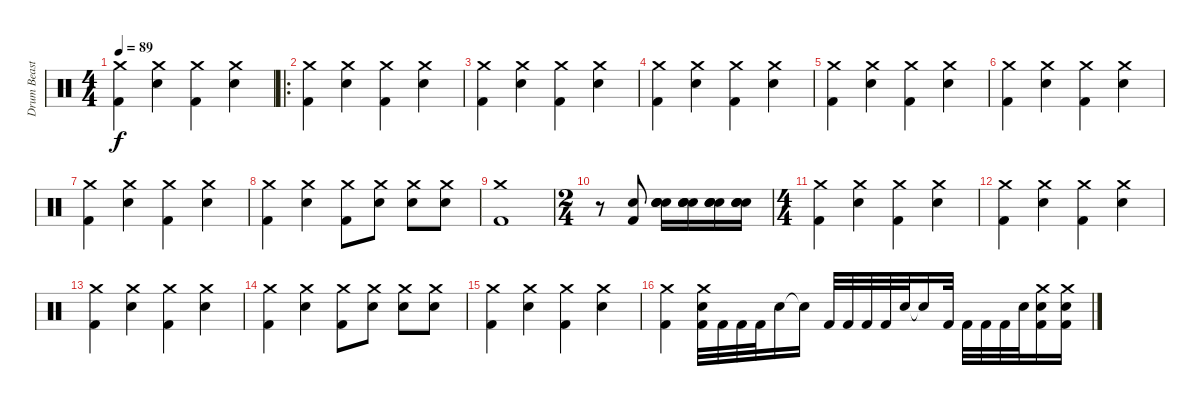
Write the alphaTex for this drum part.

\track ("Drum Beast Lars" "Drum Beast") {instrument percussion}
\staff {score}
\articulation defaults
\ts (4 4)
\tempo 89
\clef neutral
\ks c
("Crash medium (hit)" "Kick (hit) 2").4{dy f} ("Crash medium (hit)" "Electric Snare (hit)").4 ("Crash medium (hit)" "Kick (hit) 2").4 ("Crash medium (hit)" "Electric Snare (hit)").4 |
\ro
("Crash medium (hit)" "Kick (hit) 2").4 ("Crash medium (hit)" "Electric Snare (hit)").4 ("Crash medium (hit)" "Kick (hit) 2").4 ("Crash medium (hit)" "Electric Snare (hit)").4 |
("Crash medium (hit)" "Kick (hit) 2").4 ("Crash medium (hit)" "Electric Snare (hit)").4 ("Crash medium (hit)" "Kick (hit) 2").4 ("Crash medium (hit)" "Electric Snare (hit)").4 |
("Crash medium (hit)" "Kick (hit) 2").4 ("Crash medium (hit)" "Electric Snare (hit)").4 ("Crash medium (hit)" "Kick (hit) 2").4 ("Crash medium (hit)" "Electric Snare (hit)").4 |
("Crash medium (hit)" "Kick (hit) 2").4 ("Crash medium (hit)" "Electric Snare (hit)").4 ("Crash medium (hit)" "Kick (hit) 2").4 ("Crash medium (hit)" "Electric Snare (hit)").4 |
("Crash medium (hit)" "Kick (hit) 2").4 ("Crash medium (hit)" "Electric Snare (hit)").4 ("Crash medium (hit)" "Kick (hit) 2").4 ("Crash medium (hit)" "Electric Snare (hit)").4 |
("Crash medium (hit)" "Kick (hit) 2").4 ("Crash medium (hit)" "Electric Snare (hit)").4 ("Crash medium (hit)" "Kick (hit) 2").4 ("Crash medium (hit)" "Electric Snare (hit)").4 |
("Crash medium (hit)" "Kick (hit) 2").4 ("Crash medium (hit)" "Electric Snare (hit)").4 ("Crash medium (hit)" "Kick (hit) 2").8 ("Crash medium (hit)" "Electric Snare (hit)").8 ("Crash medium (hit)" "Electric Snare (hit)").8 ("Crash medium (hit)" "Electric Snare (hit)").8 |
("Crash medium (hit)" "Kick (hit) 2").1 |
\ts (2 4)
r.8 ("Electric Snare (hit)" "Kick (hit) 2").8 ("Electric Snare (hit)" "Electric Snare (hit)" "Electric Snare (hit)" "Electric Snare (hit)").16 ("Electric Snare (hit)" "Electric Snare (hit)" "Electric Snare (hit)" "Electric Snare (hit)").16 ("Electric Snare (hit)" "Electric Snare (hit)" "Electric Snare (hit)" "Electric Snare (hit)").16 ("Electric Snare (hit)" "Electric Snare (hit)" "Electric Snare (hit)" "Electric Snare (hit)").16 |
\ts (4 4)
("Crash medium (hit)" "Kick (hit) 2").4 ("Crash medium (hit)" "Electric Snare (hit)").4 ("Crash medium (hit)" "Kick (hit) 2").4 ("Crash medium (hit)" "Electric Snare (hit)").4 |
("Crash medium (hit)" "Kick (hit) 2").4 ("Crash medium (hit)" "Electric Snare (hit)").4 ("Crash medium (hit)" "Kick (hit) 2").4 ("Crash medium (hit)" "Electric Snare (hit)").4 |
("Crash medium (hit)" "Kick (hit) 2").4 ("Crash medium (hit)" "Electric Snare (hit)").4 ("Crash medium (hit)" "Kick (hit) 2").4 ("Crash medium (hit)" "Electric Snare (hit)").4 |
("Crash medium (hit)" "Kick (hit) 2").4 ("Crash medium (hit)" "Electric Snare (hit)").4 ("Crash medium (hit)" "Kick (hit) 2").8 ("Crash medium (hit)" "Electric Snare (hit)").8 ("Crash medium (hit)" "Electric Snare (hit)").8 ("Crash medium (hit)" "Electric Snare (hit)").8 |
("Crash medium (hit)" "Kick (hit) 2").4 ("Crash medium (hit)" "Electric Snare (hit)").4 ("Crash medium (hit)" "Kick (hit) 2").4 ("Crash medium (hit)" "Electric Snare (hit)").4 |
("Crash medium (hit)" "Kick (hit) 2").4 ("Crash medium (hit)" "Electric Snare (hit)" "Kick (hit) 2").32 "Kick (hit) 2".32 "Kick (hit) 2".32 "Kick (hit) 2".32 "Electric Snare (hit)".16 "Snare (hit)"{t}.16 "Kick (hit) 2".32 "Kick (hit) 2".32 "Kick (hit) 2".32 "Kick (hit) 2".32 "Electric Snare (hit)".32 "Snare (hit)"{t}.16 "Kick (hit) 2".32 "Kick (hit) 2".32 "Kick (hit) 2".32 "Kick (hit) 2".32 "Electric Snare (hit)".32 ("Crash medium (hit)" "Kick (hit) 2" "Electric Snare (hit)").16 ("Crash medium (hit)" "Kick (hit) 2" "Electric Snare (hit)").16
